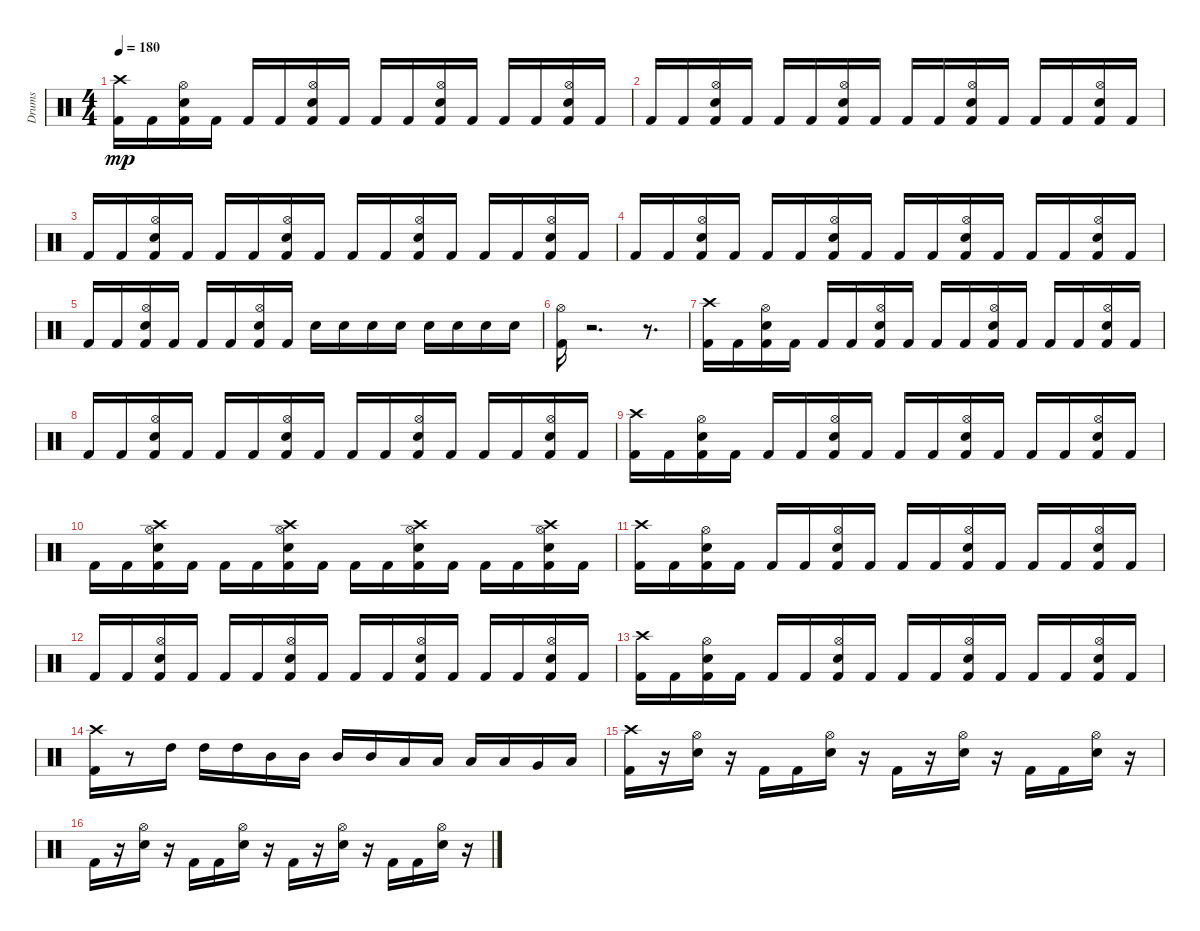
\track ("Drums" "Drums") {instrument percussion}
\staff {score}
\articulation defaults
\ts (4 4)
\tempo 180
\clef neutral
\ks c
("Crash high (hit)" "Kick (hit) 2").16{dy mp} "Kick (hit) 2".16 ("Hi-Hat (open)" "Kick (hit) 2" "Electric Snare (hit)").16 "Kick (hit) 2".16 "Kick (hit) 2".16 "Kick (hit) 2".16 ("Electric Snare (hit)" "Hi-Hat (open)" "Kick (hit) 2").16 "Kick (hit) 2".16 "Kick (hit) 2".16 "Kick (hit) 2".16 ("Kick (hit) 2" "Electric Snare (hit)" "Hi-Hat (open)").16 "Kick (hit) 2".16 "Kick (hit) 2".16 "Kick (hit) 2".16 ("Kick (hit) 2" "Electric Snare (hit)" "Hi-Hat (open)").16 "Kick (hit) 2".16 |
"Kick (hit) 2".16 "Kick (hit) 2".16 ("Electric Snare (hit)" "Kick (hit) 2" "Hi-Hat (open)").16 "Kick (hit) 2".16 "Kick (hit) 2".16 "Kick (hit) 2".16 ("Hi-Hat (open)" "Kick (hit) 2" "Electric Snare (hit)").16 "Kick (hit) 2".16 "Kick (hit) 2".16 "Kick (hit) 2".16 ("Hi-Hat (open)" "Kick (hit) 2" "Electric Snare (hit)").16 "Kick (hit) 2".16 "Kick (hit) 2".16 "Kick (hit) 2".16 ("Kick (hit) 2" "Hi-Hat (open)" "Electric Snare (hit)").16 "Kick (hit) 2".16 |
"Kick (hit) 2".16 "Kick (hit) 2".16 ("Kick (hit) 2" "Electric Snare (hit)" "Hi-Hat (open)").16 "Kick (hit) 2".16 "Kick (hit) 2".16 "Kick (hit) 2".16 ("Electric Snare (hit)" "Hi-Hat (open)" "Kick (hit) 2").16 "Kick (hit) 2".16 "Kick (hit) 2".16 "Kick (hit) 2".16 ("Electric Snare (hit)" "Hi-Hat (open)" "Kick (hit) 2").16 "Kick (hit) 2".16 "Kick (hit) 2".16 "Kick (hit) 2".16 ("Kick (hit) 2" "Electric Snare (hit)" "Hi-Hat (open)").16 "Kick (hit) 2".16 |
"Kick (hit) 2".16 "Kick (hit) 2".16 ("Electric Snare (hit)" "Kick (hit) 2" "Hi-Hat (open)").16 "Kick (hit) 2".16 "Kick (hit) 2".16 "Kick (hit) 2".16 ("Electric Snare (hit)" "Kick (hit) 2" "Hi-Hat (open)").16 "Kick (hit) 2".16 "Kick (hit) 2".16 "Kick (hit) 2".16 ("Kick (hit) 2" "Hi-Hat (open)" "Electric Snare (hit)").16 "Kick (hit) 2".16 "Kick (hit) 2".16 "Kick (hit) 2".16 ("Hi-Hat (open)" "Kick (hit) 2" "Electric Snare (hit)").16 "Kick (hit) 2".16 |
"Kick (hit) 2".16 "Kick (hit) 2".16 ("Kick (hit) 2" "Hi-Hat (open)" "Electric Snare (hit)").16 "Kick (hit) 2".16 "Kick (hit) 2".16 "Kick (hit) 2".16 ("Hi-Hat (open)" "Kick (hit) 2" "Electric Snare (hit)").16 "Kick (hit) 2".16 "Electric Snare (hit)".16 "Electric Snare (hit)".16 "Electric Snare (hit)".16 "Electric Snare (hit)".16 "Electric Snare (hit)".16 "Electric Snare (hit)".16 "Electric Snare (hit)".16 "Electric Snare (hit)".16 |
("Hi-Hat (open)" "Kick (hit) 2").16 r.2{d} r.8{d} |
("Crash high (hit)" "Kick (hit) 2").16 "Kick (hit) 2".16 ("Kick (hit) 2" "Electric Snare (hit)" "Hi-Hat (open)").16 "Kick (hit) 2".16 "Kick (hit) 2".16 "Kick (hit) 2".16 ("Hi-Hat (open)" "Electric Snare (hit)" "Kick (hit) 2").16 "Kick (hit) 2".16 "Kick (hit) 2".16 "Kick (hit) 2".16 ("Electric Snare (hit)" "Kick (hit) 2" "Hi-Hat (open)").16 "Kick (hit) 2".16 "Kick (hit) 2".16 "Kick (hit) 2".16 ("Kick (hit) 2" "Electric Snare (hit)" "Hi-Hat (open)").16 "Kick (hit) 2".16 |
"Kick (hit) 2".16 "Kick (hit) 2".16 ("Kick (hit) 2" "Hi-Hat (open)" "Electric Snare (hit)").16 "Kick (hit) 2".16 "Kick (hit) 2".16 "Kick (hit) 2".16 ("Electric Snare (hit)" "Kick (hit) 2" "Hi-Hat (open)").16 "Kick (hit) 2".16 "Kick (hit) 2".16 "Kick (hit) 2".16 ("Electric Snare (hit)" "Kick (hit) 2" "Hi-Hat (open)").16 "Kick (hit) 2".16 "Kick (hit) 2".16 "Kick (hit) 2".16 ("Hi-Hat (open)" "Kick (hit) 2" "Electric Snare (hit)").16 "Kick (hit) 2".16 |
("Crash high (hit)" "Kick (hit) 2").16 "Kick (hit) 2".16 ("Hi-Hat (open)" "Kick (hit) 2" "Electric Snare (hit)").16 "Kick (hit) 2".16 "Kick (hit) 2".16 "Kick (hit) 2".16 ("Kick (hit) 2" "Electric Snare (hit)" "Hi-Hat (open)").16 "Kick (hit) 2".16 "Kick (hit) 2".16 "Kick (hit) 2".16 ("Hi-Hat (open)" "Kick (hit) 2" "Electric Snare (hit)").16 "Kick (hit) 2".16 "Kick (hit) 2".16 "Kick (hit) 2".16 ("Kick (hit) 2" "Electric Snare (hit)" "Hi-Hat (open)").16 "Kick (hit) 2".16 |
"Kick (hit) 2".16 "Kick (hit) 2".16 ("Kick (hit) 2" "Electric Snare (hit)" "Hi-Hat (open)" "Crash high (hit)").16 "Kick (hit) 2".16 "Kick (hit) 2".16 "Kick (hit) 2".16 ("Electric Snare (hit)" "Kick (hit) 2" "Crash high (hit)" "Hi-Hat (open)").16 "Kick (hit) 2".16 "Kick (hit) 2".16 "Kick (hit) 2".16 ("Electric Snare (hit)" "Kick (hit) 2" "Hi-Hat (open)" "Crash high (hit)").16 "Kick (hit) 2".16 "Kick (hit) 2".16 "Kick (hit) 2".16 ("Crash high (hit)" "Kick (hit) 2" "Electric Snare (hit)" "Hi-Hat (open)").16 "Kick (hit) 2".16 |
("Crash high (hit)" "Kick (hit) 2").16 "Kick (hit) 2".16 ("Electric Snare (hit)" "Hi-Hat (open)" "Kick (hit) 2").16 "Kick (hit) 2".16 "Kick (hit) 2".16 "Kick (hit) 2".16 ("Hi-Hat (open)" "Electric Snare (hit)" "Kick (hit) 2").16 "Kick (hit) 2".16 "Kick (hit) 2".16 "Kick (hit) 2".16 ("Kick (hit) 2" "Electric Snare (hit)" "Hi-Hat (open)").16 "Kick (hit) 2".16 "Kick (hit) 2".16 "Kick (hit) 2".16 ("Hi-Hat (open)" "Electric Snare (hit)" "Kick (hit) 2").16 "Kick (hit) 2".16 |
"Kick (hit) 2".16 "Kick (hit) 2".16 ("Hi-Hat (open)" "Kick (hit) 2" "Electric Snare (hit)").16 "Kick (hit) 2".16 "Kick (hit) 2".16 "Kick (hit) 2".16 ("Kick (hit) 2" "Hi-Hat (open)" "Electric Snare (hit)").16 "Kick (hit) 2".16 "Kick (hit) 2".16 "Kick (hit) 2".16 ("Electric Snare (hit)" "Hi-Hat (open)" "Kick (hit) 2").16 "Kick (hit) 2".16 "Kick (hit) 2".16 "Kick (hit) 2".16 ("Hi-Hat (open)" "Kick (hit) 2" "Electric Snare (hit)").16 "Kick (hit) 2".16 |
("Crash high (hit)" "Kick (hit) 2").16 "Kick (hit) 2".16 ("Hi-Hat (open)" "Electric Snare (hit)" "Kick (hit) 2").16 "Kick (hit) 2".16 "Kick (hit) 2".16 "Kick (hit) 2".16 ("Kick (hit) 2" "Hi-Hat (open)" "Electric Snare (hit)").16 "Kick (hit) 2".16 "Kick (hit) 2".16 "Kick (hit) 2".16 ("Hi-Hat (open)" "Kick (hit) 2" "Electric Snare (hit)").16 "Kick (hit) 2".16 "Kick (hit) 2".16 "Kick (hit) 2".16 ("Electric Snare (hit)" "Kick (hit) 2" "Hi-Hat (open)").16 "Kick (hit) 2".16 |
("Crash high (hit)" "Kick (hit) 2").16 r.8 "High Tom (hit)".16 "High Tom (hit)".16 "High Tom (hit)".16 "Mid Tom (hit)".16 "Mid Tom (hit)".16 "Mid Tom (hit)".16 "Mid Tom (hit)".16 "Low Tom (hit)".16 "Low Tom (hit)".16 "Low Tom (hit)".16 "Low Tom (hit)".16 "Very Low Tom (hit)".16 "Low Floor Tom (hit)".16 |
("Kick (hit) 2" "Crash high (hit)").16 r.16 ("Hi-Hat (open)" "Electric Snare (hit)").16 r.16 "Kick (hit) 2".16 "Kick (hit) 2".16 ("Hi-Hat (open)" "Electric Snare (hit)").16 r.16 "Kick (hit) 2".16 r.16 ("Hi-Hat (open)" "Electric Snare (hit)").16 r.16 "Kick (hit) 2".16 "Kick (hit) 2".16 ("Hi-Hat (open)" "Electric Snare (hit)").16 r.16 |
"Kick (hit) 2".16 r.16 ("Electric Snare (hit)" "Hi-Hat (open)").16 r.16 "Kick (hit) 2".16 "Kick (hit) 2".16 ("Hi-Hat (open)" "Electric Snare (hit)").16 r.16 "Kick (hit) 2".16 r.16 ("Electric Snare (hit)" "Hi-Hat (open)").16 r.16 "Kick (hit) 2".16 "Kick (hit) 2".16 ("Hi-Hat (open)" "Electric Snare (hit)").16 r.16
